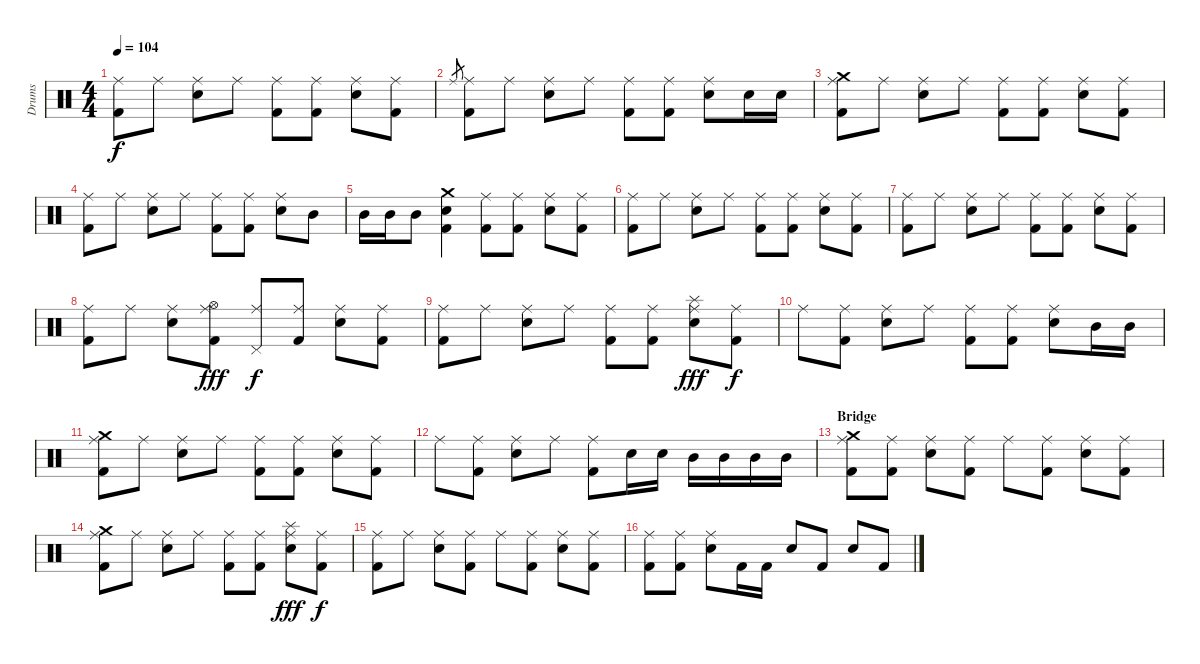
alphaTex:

\track ("Drums" "Drums") {instrument percussion}
\staff {score}
\articulation defaults
\ts (4 4)
\tempo 104
\clef neutral
\ks c
("Ride (middle)" "Kick (hit) 2").8{dy f} "Ride (middle)".8 ("Ride (middle)" "Electric Snare (hit)").8 "Ride (middle)".8 ("Ride (middle)" "Kick (hit) 2").8 ("Ride (middle)" "Kick (hit) 2").8 ("Ride (middle)" "Electric Snare (hit)").8 ("Ride (middle)" "Kick (hit) 2").8 |
"Ride (middle)".8{gr} ("Ride (middle)" "Kick (hit) 2").8 "Ride (middle)".8 ("Ride (middle)" "Electric Snare (hit)").8 "Ride (middle)".8 ("Ride (middle)" "Kick (hit) 2").8 ("Ride (middle)" "Kick (hit) 2").8 ("Ride (middle)" "Electric Snare (hit)").8 "Electric Snare (hit)".16 "Electric Snare (hit)".16 |
("Crash medium (hit)" "Ride (middle)" "Kick (hit) 2").8 "Ride (middle)".8 ("Ride (middle)" "Electric Snare (hit)").8 "Ride (middle)".8 ("Ride (middle)" "Kick (hit) 2").8 ("Ride (middle)" "Kick (hit) 2").8 ("Ride (middle)" "Electric Snare (hit)").8 ("Ride (middle)" "Kick (hit) 2").8 |
("Ride (middle)" "Kick (hit) 2").8 "Ride (middle)".8 ("Ride (middle)" "Electric Snare (hit)").8 "Ride (middle)".8 ("Ride (middle)" "Kick (hit) 2").8 ("Ride (middle)" "Kick (hit) 2").8 ("Ride (middle)" "Electric Snare (hit)").8 "Mid Tom (hit)".8 |
"Mid Tom (hit)".16 "Mid Tom (hit)".16 "Mid Tom (hit)".8 ("Crash medium (hit)" "Electric Snare (hit)" "Kick (hit) 2").4 ("Ride (middle)" "Kick (hit) 2").8 ("Ride (middle)" "Kick (hit) 2").8 ("Ride (middle)" "Electric Snare (hit)").8 ("Ride (middle)" "Kick (hit) 2").8 |
("Ride (middle)" "Kick (hit) 2").8 "Ride (middle)".8 ("Ride (middle)" "Electric Snare (hit)").8 "Ride (middle)".8 ("Ride (middle)" "Kick (hit) 2").8 ("Ride (middle)" "Kick (hit) 2").8 ("Ride (middle)" "Electric Snare (hit)").8 ("Ride (middle)" "Kick (hit) 2").8 |
("Ride (middle)" "Kick (hit) 2").8 "Ride (middle)".8 ("Ride (middle)" "Electric Snare (hit)").8 "Ride (middle)".8 ("Ride (middle)" "Kick (hit) 2").8 ("Ride (middle)" "Kick (hit) 2").8 ("Ride (middle)" "Electric Snare (hit)").8 ("Ride (middle)" "Kick (hit) 2").8 |
("Ride (middle)" "Kick (hit) 2").8 "Ride (middle)".8 ("Ride (middle)" "Electric Snare (hit)").8 ("Ride (middle)" "Hi-Hat (open)" "Kick (hit) 2").8{dy fff} ("Ride (middle)" "Pedal Hi-Hat (hit)").8{dy f} ("Ride (middle)" "Kick (hit) 2").8 ("Ride (middle)" "Electric Snare (hit)").8 ("Ride (middle)" "Kick (hit) 2").8 |
("Ride (middle)" "Kick (hit) 2").8 "Ride (middle)".8 ("Ride (middle)" "Electric Snare (hit)").8 "Ride (middle)".8 ("Ride (middle)" "Kick (hit) 2").8 ("Ride (middle)" "Kick (hit) 2").8 ("Splash (hit)" "Ride (middle)" "Electric Snare (hit)").8{dy fff} ("Ride (middle)" "Kick (hit) 2").8{dy f} |
"Ride (middle)".8 ("Ride (middle)" "Kick (hit) 2").8 ("Ride (middle)" "Electric Snare (hit)").8 "Ride (middle)".8 ("Ride (middle)" "Kick (hit) 2").8 ("Ride (middle)" "Kick (hit) 2").8 ("Ride (middle)" "Electric Snare (hit)").8 "Mid Tom (hit)".16 "Mid Tom (hit)".16 |
("Crash medium (hit)" "Ride (middle)" "Kick (hit) 2").8 "Ride (middle)".8 ("Ride (middle)" "Electric Snare (hit)").8 "Ride (middle)".8 ("Ride (middle)" "Kick (hit) 2").8 ("Ride (middle)" "Kick (hit) 2").8 ("Ride (middle)" "Electric Snare (hit)").8 ("Ride (middle)" "Kick (hit) 2").8 |
"Ride (middle)".8 ("Ride (middle)" "Kick (hit) 2").8 ("Ride (middle)" "Electric Snare (hit)").8 "Ride (middle)".8 ("Ride (middle)" "Kick (hit) 2").8 "Electric Snare (hit)".16 "Electric Snare (hit)".16 "Mid Tom (hit)".16 "Mid Tom (hit)".16 "Mid Tom (hit)".16 "Mid Tom (hit)".16 |
\section ("" "Bridge")
("Crash medium (hit)" "Ride (middle)" "Kick (hit) 2").8 ("Ride (middle)" "Kick (hit) 2").8 ("Ride (middle)" "Electric Snare (hit)").8 ("Ride (middle)" "Kick (hit) 2").8 "Ride (middle)".8 ("Ride (middle)" "Kick (hit) 2").8 ("Ride (middle)" "Electric Snare (hit)").8 ("Ride (middle)" "Kick (hit) 2").8 |
("Crash medium (hit)" "Ride (middle)" "Kick (hit) 2").8 "Ride (middle)".8 ("Ride (middle)" "Electric Snare (hit)").8 "Ride (middle)".8 ("Ride (middle)" "Kick (hit) 2").8 ("Ride (middle)" "Kick (hit) 2").8 ("Splash (hit)" "Ride (middle)" "Electric Snare (hit)").8{dy fff} ("Ride (middle)" "Kick (hit) 2").8{dy f} |
("Ride (middle)" "Kick (hit) 2").8 "Ride (middle)".8 ("Ride (middle)" "Electric Snare (hit)").8 ("Ride (middle)" "Kick (hit) 2").8 "Ride (middle)".8 ("Ride (middle)" "Kick (hit) 2").8 ("Ride (middle)" "Electric Snare (hit)").8 ("Ride (middle)" "Kick (hit) 2").8 |
("Ride (middle)" "Kick (hit) 2").8 ("Ride (middle)" "Kick (hit) 2").8 ("Ride (middle)" "Electric Snare (hit)").8 "Kick (hit) 2".16 "Kick (hit) 2".16 "Electric Snare (hit)".8 "Kick (hit) 2".8 "Electric Snare (hit)".8 "Kick (hit) 2".8
